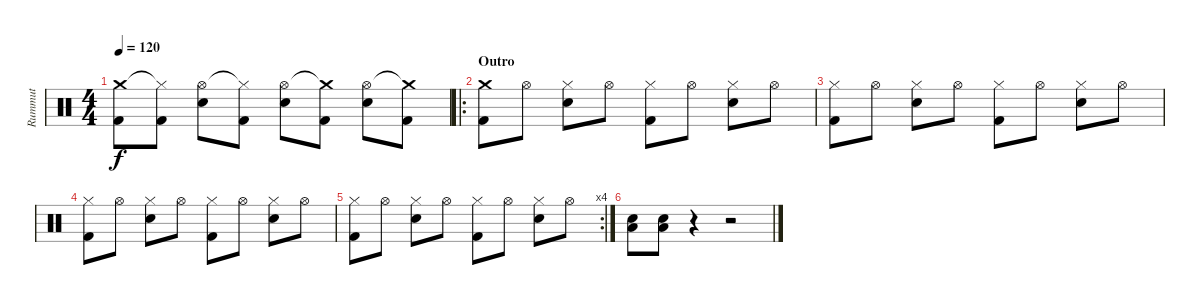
\track ("Rummut" "Rummut") {instrument percussion}
\staff {score}
\articulation defaults
\ts (4 4)
\tempo 120
\clef neutral
\ks c
("Kick (hit) 2" "Crash medium (hit)").8{dy f} ("Kick (hit) 2" "Hi-Hat (closed)"{t}).8 ("Electric Snare (hit)" "Hi-Hat (open)").8 ("Kick (hit) 2" "Hi-Hat (closed)"{t}).8 ("Electric Snare (hit)" "Hi-Hat (open)").8 ("Kick (hit) 2" "Crash medium (hit)"{t}).8 ("Electric Snare (hit)" "Hi-Hat (open)").8 ("Kick (hit) 2" "Crash medium (hit)"{t}).8 |
\ro
\section ("" "Outro")
("Kick (hit) 2" "Crash medium (hit)").8 "Hi-Hat (open)".8 ("Electric Snare (hit)" "Hi-Hat (closed)").8 "Hi-Hat (open)".8 ("Kick (hit) 2" "Hi-Hat (closed)").8 "Hi-Hat (open)".8 ("Electric Snare (hit)" "Hi-Hat (closed)").8 "Hi-Hat (open)".8 |
("Kick (hit) 2" "Hi-Hat (closed)").8 "Hi-Hat (open)".8 ("Electric Snare (hit)" "Hi-Hat (closed)").8 "Hi-Hat (open)".8 ("Kick (hit) 2" "Hi-Hat (closed)").8 "Hi-Hat (open)".8 ("Electric Snare (hit)" "Hi-Hat (closed)").8 "Hi-Hat (open)".8 |
("Kick (hit) 2" "Hi-Hat (closed)").8 "Hi-Hat (open)".8 ("Electric Snare (hit)" "Hi-Hat (closed)").8 "Hi-Hat (open)".8 ("Kick (hit) 2" "Hi-Hat (closed)").8 "Hi-Hat (open)".8 ("Electric Snare (hit)" "Hi-Hat (closed)").8 "Hi-Hat (open)".8 |
\rc 4
("Kick (hit) 2" "Hi-Hat (closed)").8 "Hi-Hat (open)".8 ("Electric Snare (hit)" "Hi-Hat (closed)").8 "Hi-Hat (open)".8 ("Kick (hit) 2" "Hi-Hat (closed)").8 "Hi-Hat (open)".8 ("Electric Snare (hit)" "Hi-Hat (closed)").8 "Hi-Hat (open)".8 |
("Low Tom (hit)" "Electric Snare (hit)").8 ("Low Tom (hit)" "Electric Snare (hit)").8 r.4 r.2
